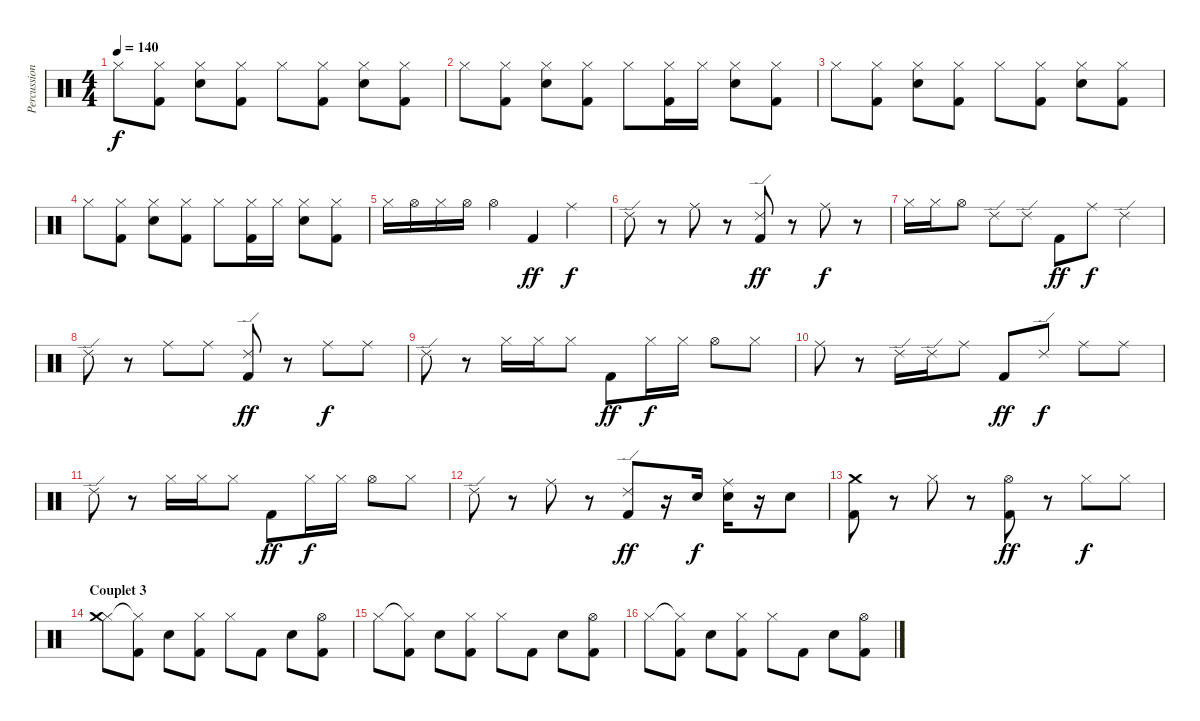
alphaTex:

\track ("Percussions" "Percussion") {instrument percussion}
\staff {score}
\articulation defaults
\ts (4 4)
\tempo 140
\clef neutral
\ks c "Hi-Hat (closed)".8{dy f}
("Hi-Hat (closed)" "Kick (hit) 2").8 ("Hi-Hat (closed)" "Snare (hit) 2").8 ("Hi-Hat (closed)" "Kick (hit) 2").8 "Hi-Hat (closed)".8 ("Hi-Hat (closed)" "Kick (hit) 2").8 ("Hi-Hat (closed)" "Snare (hit) 2").8 ("Hi-Hat (closed)" "Kick (hit) 2").8 |
"Hi-Hat (closed)".8 ("Hi-Hat (closed)" "Kick (hit) 2").8 ("Hi-Hat (closed)" "Snare (hit) 2").8 ("Hi-Hat (closed)" "Kick (hit) 2").8 "Hi-Hat (closed)".8 ("Hi-Hat (closed)" "Kick (hit) 2").16 "Hi-Hat (closed)".16 ("Hi-Hat (closed)" "Snare (hit) 2").8 ("Hi-Hat (closed)" "Kick (hit) 2").8 |
"Hi-Hat (closed)".8 ("Hi-Hat (closed)" "Kick (hit) 2").8 ("Hi-Hat (closed)" "Snare (hit) 2").8 ("Hi-Hat (closed)" "Kick (hit) 2").8 "Hi-Hat (closed)".8 ("Hi-Hat (closed)" "Kick (hit) 2").8 ("Hi-Hat (closed)" "Snare (hit) 2").8 ("Hi-Hat (closed)" "Kick (hit) 2").8 |
"Hi-Hat (closed)".8 ("Hi-Hat (closed)" "Kick (hit) 2").8 ("Hi-Hat (closed)" "Snare (hit) 2").8 ("Hi-Hat (closed)" "Kick (hit) 2").8 "Hi-Hat (closed)".8 ("Hi-Hat (closed)" "Kick (hit) 2").16 "Hi-Hat (closed)".16 ("Hi-Hat (closed)" "Snare (hit) 2").8 ("Hi-Hat (closed)" "Kick (hit) 2").8 |
"Hi-Hat (closed)".16 "Hi-Hat (open)".16 "Hi-Hat (closed)".16 "Hi-Hat (open)".16 "Hi-Hat (open)".4 "Kick (hit) 2".4{dy ff} "Ride (middle)".4{dy f} |
"Ride (edge) 2".8 r.8 "Ride (middle)".8 r.8 ("Ride (edge) 2" "Kick (hit) 2").8{dy ff} r.8 "Ride (middle)".8{dy f} r.8 |
"Hi-Hat (closed)".16 "Hi-Hat (closed)".16 "Hi-Hat (open)".8 "Ride (edge) 2".8 "Ride (edge) 2".8 "Kick (hit) 2".8{dy ff} "Ride (middle)".8{dy f} "Ride (edge) 2".4 |
"Ride (edge) 2".8 r.8 "Ride (middle)".8 "Ride (middle)".8 ("Ride (edge) 2" "Kick (hit) 2").8{dy ff} r.8 "Ride (middle)".8{dy f} "Ride (middle)".8 |
"Ride (edge) 2".8 r.8 "Hi-Hat (closed)".16 "Hi-Hat (closed)".16 "Hi-Hat (closed)".8 "Kick (hit) 2".8{dy ff} "Hi-Hat (closed)".16{dy f} "Hi-Hat (closed)".16 "Hi-Hat (open)".8 "Hi-Hat (closed)".8 |
"Ride (middle)".8 r.8 "Ride (edge) 2".16 "Ride (edge) 2".16 "Ride (middle)".8 "Kick (hit) 2".8{dy ff} "Ride (edge) 2".8{dy f} "Ride (middle)".8 "Ride (middle)".8 |
"Ride (edge) 2".8 r.8 "Hi-Hat (closed)".16 "Hi-Hat (closed)".16 "Hi-Hat (closed)".8 "Kick (hit) 2".8{dy ff} "Hi-Hat (closed)".16{dy f} "Hi-Hat (closed)".16 "Hi-Hat (open)".8 "Hi-Hat (closed)".8 |
"Ride (edge) 2".8 r.8 "Ride (middle)".8 r.8 ("Ride (edge) 2" "Kick (hit) 2").8{dy ff} r.16 "Snare (hit) 2".16{dy f} ("Ride (middle)" "Snare (hit) 2").16 r.16 "Snare (hit) 2".8 |
("Crash medium (hit)" "Kick (hit) 2").8 r.8 "Hi-Hat (closed)".8 r.8 ("Hi-Hat (open)" "Kick (hit) 2").8{dy ff} r.8 "Hi-Hat (closed)".8{dy f} "Hi-Hat (closed)".8 |
\section ("" "Couplet 3")
("Hi-Hat (closed)" "Crash medium (hit)").8 ("Hi-Hat (closed)"{t} "Kick (hit) 2").8 "Snare (hit) 2".8 ("Hi-Hat (closed)" "Kick (hit) 2").8 "Hi-Hat (closed)".8 "Kick (hit) 2".8 "Snare (hit) 2".8 ("Hi-Hat (open)" "Kick (hit) 2").8 |
"Hi-Hat (closed)".8 ("Hi-Hat (closed)"{t} "Kick (hit) 2").8 "Snare (hit) 2".8 ("Hi-Hat (closed)" "Kick (hit) 2").8 "Hi-Hat (closed)".8 "Kick (hit) 2".8 "Snare (hit) 2".8 ("Hi-Hat (open)" "Kick (hit) 2").8 |
"Hi-Hat (closed)".8 ("Hi-Hat (closed)"{t} "Kick (hit) 2").8 "Snare (hit) 2".8 ("Hi-Hat (closed)" "Kick (hit) 2").8 "Hi-Hat (closed)".8 "Kick (hit) 2".8 "Snare (hit) 2".8 ("Hi-Hat (open)" "Kick (hit) 2").8
